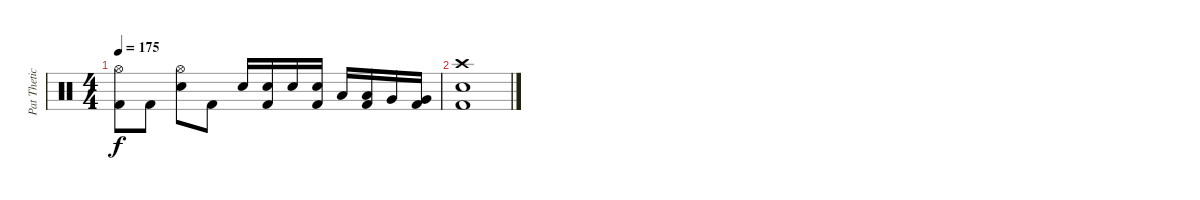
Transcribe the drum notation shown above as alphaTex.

\track ("Pat Thetic" "Pat Thetic") {instrument percussion}
\staff {score}
\articulation defaults
\ts (4 4)
\tempo 175
\clef neutral
\ks c
("Hi-Hat (open)" "Kick (hit) 2").8{dy f} "Kick (hit) 2".8 ("Hi-Hat (open)" "Electric Snare (hit)").8 "Kick (hit) 2".8 "Electric Snare (hit)".16 ("Electric Snare (hit)" "Kick (hit) 2").16 "Electric Snare (hit)".16 ("Electric Snare (hit)" "Kick (hit) 2").16 "Low Tom (hit)".16 ("Low Tom (hit)" "Kick (hit) 2").16 "Very Low Tom (hit)".16 ("Very Low Tom (hit)" "Kick (hit) 2").16 |
("Crash high (hit)" "Electric Snare (hit)" "Kick (hit) 2").1
